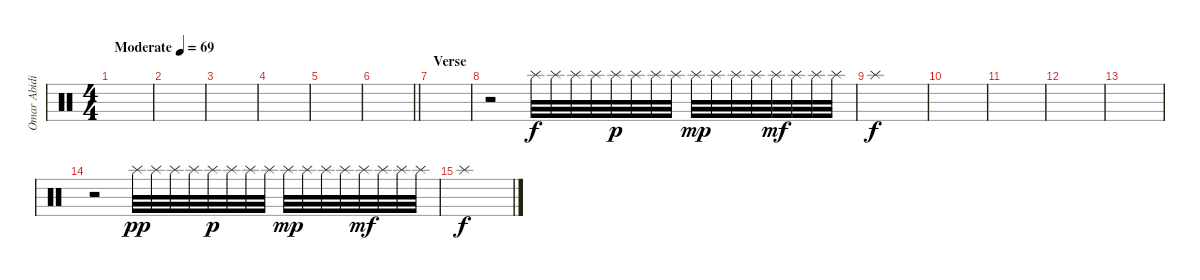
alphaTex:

\track ("Omar Abidi" "Omar Abidi") {instrument percussion}
\staff {score}
\articulation defaults
\ts (4 4)
\tempo (69 "Moderate")
\clef neutral
\ks c
|
|
|
|
|
\barLineRight lightlight
|
\section ("" "Verse")
|
r.2 "Splash (hit)".32 "Splash (hit)".32 "Splash (hit)".32 "Splash (hit)".32 "Splash (hit)".32{dy p} "Splash (hit)".32 "Splash (hit)".32 "Splash (hit)".32 "Splash (hit)".32{dy mp} "Splash (hit)".32 "Splash (hit)".32 "Splash (hit)".32 "Splash (hit)".32{dy mf} "Splash (hit)".32 "Splash (hit)".32 "Splash (hit)".32 |
"Splash (hit)".1{dy f} |
|
|
|
|
r.2 "Splash (hit)".32{dy pp} "Splash (hit)".32 "Splash (hit)".32 "Splash (hit)".32 "Splash (hit)".32{dy p} "Splash (hit)".32 "Splash (hit)".32 "Splash (hit)".32 "Splash (hit)".32{dy mp} "Splash (hit)".32 "Splash (hit)".32 "Splash (hit)".32 "Splash (hit)".32{dy mf} "Splash (hit)".32 "Splash (hit)".32 "Splash (hit)".32 |
"Splash (hit)".1{dy f}
